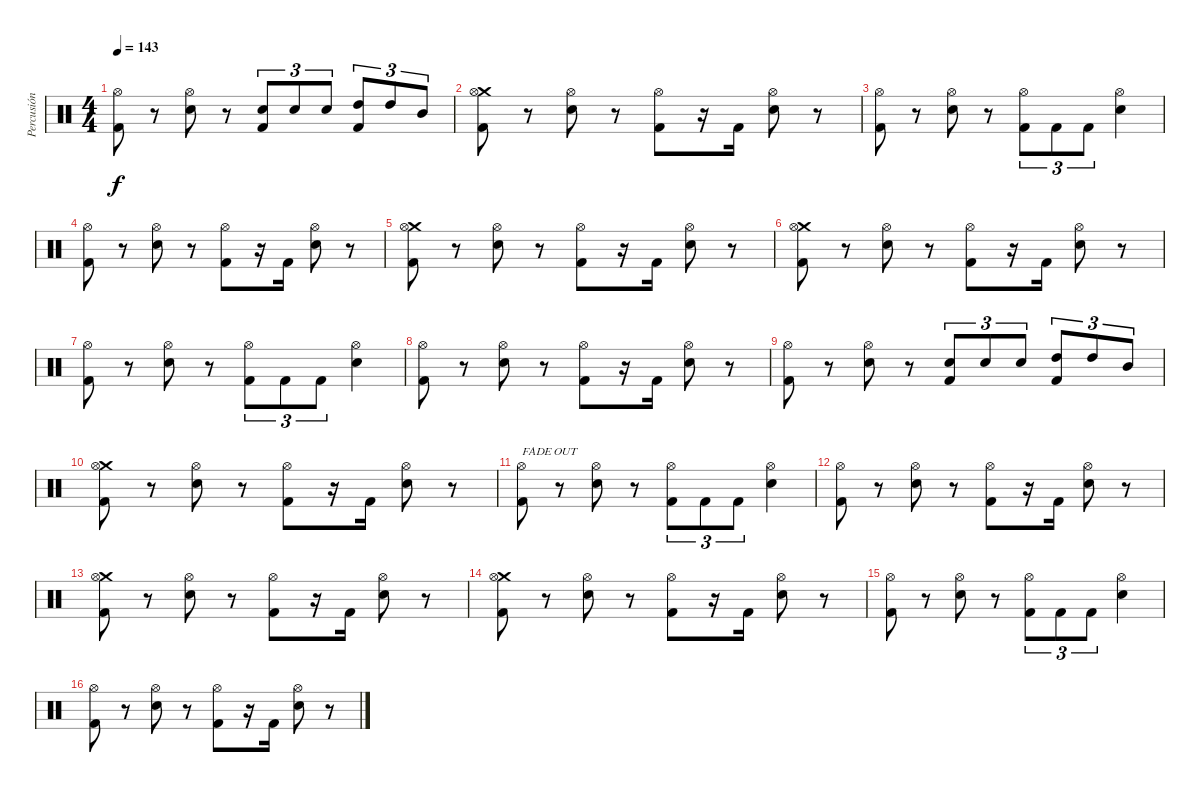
\track ("Percusión" "Percusión") {instrument percussion}
\staff {score}
\articulation defaults
\ts (4 4)
\tempo 143
\clef neutral
\ks c
("Hi-Hat (open)" "Kick (hit) 2").8{dy f} r.8 ("Hi-Hat (open)" "Electric Snare (hit)").8 r.8 ("Electric Snare (hit)" "Kick (hit) 2").8{tu (3 2)} "Electric Snare (hit)".8{tu (3 2)} "Electric Snare (hit)".8{tu (3 2)} ("High Tom (hit)" "Kick (hit) 2").8{tu (3 2)} "High Tom (hit)".8{tu (3 2)} "Mid Tom (hit)".8{tu (3 2)} |
("Crash medium (hit)" "Hi-Hat (open)" "Kick (hit) 2").8 r.8 ("Hi-Hat (open)" "Electric Snare (hit)").8 r.8 ("Hi-Hat (open)" "Kick (hit) 2").8 r.16 "Kick (hit) 2".16 ("Electric Snare (hit)" "Hi-Hat (open)").8 r.8 |
("Hi-Hat (open)" "Kick (hit) 2").8 r.8 ("Hi-Hat (open)" "Electric Snare (hit)").8 r.8 ("Hi-Hat (open)" "Kick (hit) 2").8{tu (3 2)} "Kick (hit) 2".8{tu (3 2)} "Kick (hit) 2".8{tu (3 2)} ("Hi-Hat (open)" "Electric Snare (hit)").4 |
("Hi-Hat (open)" "Kick (hit) 2").8 r.8 ("Hi-Hat (open)" "Electric Snare (hit)").8 r.8 ("Hi-Hat (open)" "Kick (hit) 2").8 r.16 "Kick (hit) 2".16 ("Electric Snare (hit)" "Hi-Hat (open)").8 r.8 |
("Crash medium (hit)" "Hi-Hat (open)" "Kick (hit) 2").8 r.8 ("Hi-Hat (open)" "Electric Snare (hit)").8 r.8 ("Hi-Hat (open)" "Kick (hit) 2").8 r.16 "Kick (hit) 2".16 ("Electric Snare (hit)" "Hi-Hat (open)").8 r.8 |
("Crash medium (hit)" "Hi-Hat (open)" "Kick (hit) 2").8 r.8 ("Hi-Hat (open)" "Electric Snare (hit)").8 r.8 ("Hi-Hat (open)" "Kick (hit) 2").8 r.16 "Kick (hit) 2".16 ("Electric Snare (hit)" "Hi-Hat (open)").8 r.8 |
("Hi-Hat (open)" "Kick (hit) 2").8 r.8 ("Hi-Hat (open)" "Electric Snare (hit)").8 r.8 ("Hi-Hat (open)" "Kick (hit) 2").8{tu (3 2)} "Kick (hit) 2".8{tu (3 2)} "Kick (hit) 2".8{tu (3 2)} ("Hi-Hat (open)" "Electric Snare (hit)").4 |
("Hi-Hat (open)" "Kick (hit) 2").8 r.8 ("Hi-Hat (open)" "Electric Snare (hit)").8 r.8 ("Hi-Hat (open)" "Kick (hit) 2").8 r.16 "Kick (hit) 2".16 ("Electric Snare (hit)" "Hi-Hat (open)").8 r.8 |
("Hi-Hat (open)" "Kick (hit) 2").8 r.8 ("Hi-Hat (open)" "Electric Snare (hit)").8 r.8 ("Electric Snare (hit)" "Kick (hit) 2").8{tu (3 2)} "Electric Snare (hit)".8{tu (3 2)} "Electric Snare (hit)".8{tu (3 2)} ("High Tom (hit)" "Kick (hit) 2").8{tu (3 2)} "High Tom (hit)".8{tu (3 2)} "Mid Tom (hit)".8{tu (3 2)} |
("Crash medium (hit)" "Hi-Hat (open)" "Kick (hit) 2").8 r.8 ("Hi-Hat (open)" "Electric Snare (hit)").8 r.8 ("Hi-Hat (open)" "Kick (hit) 2").8 r.16 "Kick (hit) 2".16 ("Electric Snare (hit)" "Hi-Hat (open)").8 r.8 |
("Hi-Hat (open)" "Kick (hit) 2").8{txt "FADE OUT"} r.8 ("Hi-Hat (open)" "Electric Snare (hit)").8 r.8 ("Hi-Hat (open)" "Kick (hit) 2").8{tu (3 2)} "Kick (hit) 2".8{tu (3 2)} "Kick (hit) 2".8{tu (3 2)} ("Hi-Hat (open)" "Electric Snare (hit)").4 |
("Hi-Hat (open)" "Kick (hit) 2").8 r.8 ("Hi-Hat (open)" "Electric Snare (hit)").8 r.8 ("Hi-Hat (open)" "Kick (hit) 2").8 r.16 "Kick (hit) 2".16 ("Electric Snare (hit)" "Hi-Hat (open)").8 r.8 |
("Crash medium (hit)" "Hi-Hat (open)" "Kick (hit) 2").8 r.8 ("Hi-Hat (open)" "Electric Snare (hit)").8 r.8 ("Hi-Hat (open)" "Kick (hit) 2").8 r.16 "Kick (hit) 2".16 ("Electric Snare (hit)" "Hi-Hat (open)").8 r.8 |
("Crash medium (hit)" "Hi-Hat (open)" "Kick (hit) 2").8 r.8 ("Hi-Hat (open)" "Electric Snare (hit)").8 r.8 ("Hi-Hat (open)" "Kick (hit) 2").8 r.16 "Kick (hit) 2".16 ("Electric Snare (hit)" "Hi-Hat (open)").8 r.8 |
("Hi-Hat (open)" "Kick (hit) 2").8 r.8 ("Hi-Hat (open)" "Electric Snare (hit)").8 r.8 ("Hi-Hat (open)" "Kick (hit) 2").8{tu (3 2)} "Kick (hit) 2".8{tu (3 2)} "Kick (hit) 2".8{tu (3 2)} ("Hi-Hat (open)" "Electric Snare (hit)").4 |
("Hi-Hat (open)" "Kick (hit) 2").8 r.8 ("Hi-Hat (open)" "Electric Snare (hit)").8 r.8 ("Hi-Hat (open)" "Kick (hit) 2").8 r.16 "Kick (hit) 2".16 ("Electric Snare (hit)" "Hi-Hat (open)").8 r.8
